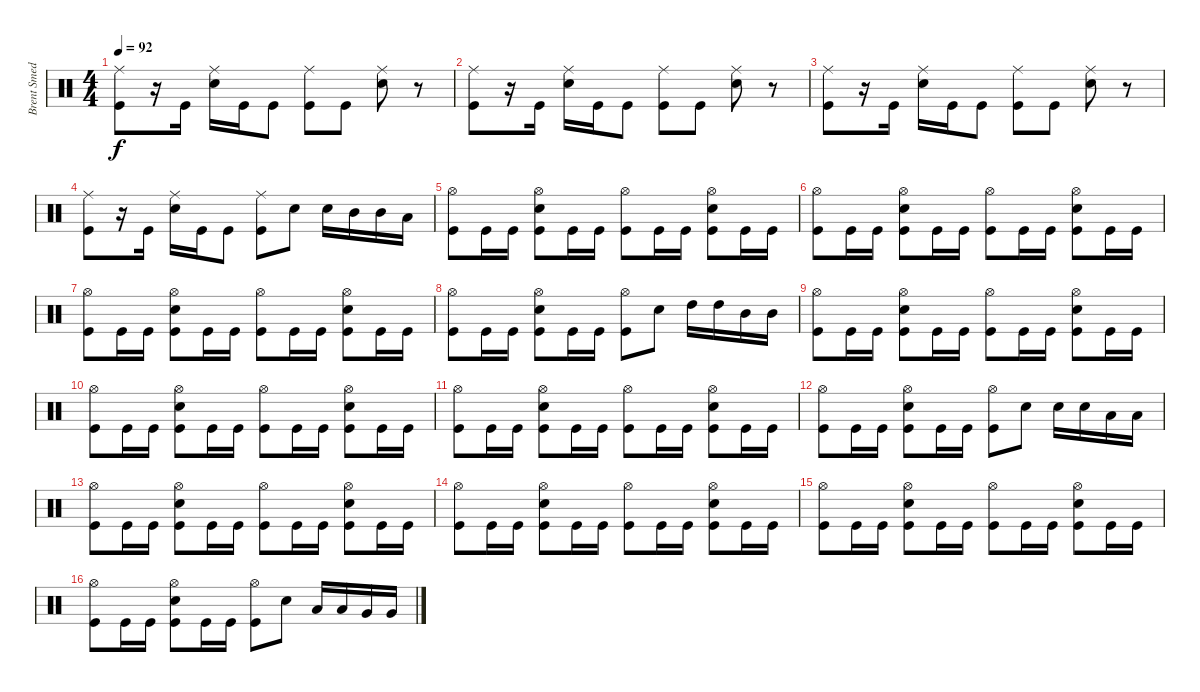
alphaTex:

\track ("Brent Smedley" "Brent Smed") {instrument percussion}
\staff {score}
\articulation defaults
\ts (4 4)
\tempo 92
\clef neutral
\ks c
("Ride (middle)" "Kick (hit)").8{dy f} r.16 "Kick (hit)".16 ("Ride (middle)" "Electric Snare (hit)").16 "Kick (hit)".16 "Kick (hit)".8 ("Ride (middle)" "Kick (hit)").8 "Kick (hit)".8 ("Ride (middle)" "Electric Snare (hit)").8 r.8 |
("Ride (middle)" "Kick (hit)").8 r.16 "Kick (hit)".16 ("Ride (middle)" "Electric Snare (hit)").16 "Kick (hit)".16 "Kick (hit)".8 ("Ride (middle)" "Kick (hit)").8 "Kick (hit)".8 ("Ride (middle)" "Electric Snare (hit)").8 r.8 |
("Ride (middle)" "Kick (hit)").8 r.16 "Kick (hit)".16 ("Ride (middle)" "Electric Snare (hit)").16 "Kick (hit)".16 "Kick (hit)".8 ("Ride (middle)" "Kick (hit)").8 "Kick (hit)".8 ("Ride (middle)" "Electric Snare (hit)").8 r.8 |
("Ride (middle)" "Kick (hit)").8 r.16 "Kick (hit)".16 ("Ride (middle)" "Electric Snare (hit)").16 "Kick (hit)".16 "Kick (hit)".8 ("Ride (middle)" "Kick (hit)").8 "Electric Snare (hit)".8 "Electric Snare (hit)".16 "Mid Tom (hit)".16 "Mid Tom (hit)".16 "Low Tom (hit)".16 |
("Hi-Hat (open)" "Kick (hit)").8 "Kick (hit)".16 "Kick (hit)".16 ("Hi-Hat (open)" "Electric Snare (hit)" "Kick (hit)").8 "Kick (hit)".16 "Kick (hit)".16 ("Hi-Hat (open)" "Kick (hit)").8 "Kick (hit)".16 "Kick (hit)".16 ("Hi-Hat (open)" "Electric Snare (hit)" "Kick (hit)").8 "Kick (hit)".16 "Kick (hit)".16 |
("Hi-Hat (open)" "Kick (hit)").8 "Kick (hit)".16 "Kick (hit)".16 ("Hi-Hat (open)" "Electric Snare (hit)" "Kick (hit)").8 "Kick (hit)".16 "Kick (hit)".16 ("Hi-Hat (open)" "Kick (hit)").8 "Kick (hit)".16 "Kick (hit)".16 ("Hi-Hat (open)" "Electric Snare (hit)" "Kick (hit)").8 "Kick (hit)".16 "Kick (hit)".16 |
("Hi-Hat (open)" "Kick (hit)").8 "Kick (hit)".16 "Kick (hit)".16 ("Hi-Hat (open)" "Electric Snare (hit)" "Kick (hit)").8 "Kick (hit)".16 "Kick (hit)".16 ("Hi-Hat (open)" "Kick (hit)").8 "Kick (hit)".16 "Kick (hit)".16 ("Hi-Hat (open)" "Electric Snare (hit)" "Kick (hit)").8 "Kick (hit)".16 "Kick (hit)".16 |
("Hi-Hat (open)" "Kick (hit)").8 "Kick (hit)".16 "Kick (hit)".16 ("Hi-Hat (open)" "Electric Snare (hit)" "Kick (hit)").8 "Kick (hit)".16 "Kick (hit)".16 ("Hi-Hat (open)" "Kick (hit)").8 "Electric Snare (hit)".8 "High Tom (hit)".16 "High Tom (hit)".16 "Mid Tom (hit)".16 "Mid Tom (hit)".16 |
("Hi-Hat (open)" "Kick (hit)").8 "Kick (hit)".16 "Kick (hit)".16 ("Hi-Hat (open)" "Electric Snare (hit)" "Kick (hit)").8 "Kick (hit)".16 "Kick (hit)".16 ("Hi-Hat (open)" "Kick (hit)").8 "Kick (hit)".16 "Kick (hit)".16 ("Hi-Hat (open)" "Electric Snare (hit)" "Kick (hit)").8 "Kick (hit)".16 "Kick (hit)".16 |
("Hi-Hat (open)" "Kick (hit)").8 "Kick (hit)".16 "Kick (hit)".16 ("Hi-Hat (open)" "Electric Snare (hit)" "Kick (hit)").8 "Kick (hit)".16 "Kick (hit)".16 ("Hi-Hat (open)" "Kick (hit)").8 "Kick (hit)".16 "Kick (hit)".16 ("Hi-Hat (open)" "Electric Snare (hit)" "Kick (hit)").8 "Kick (hit)".16 "Kick (hit)".16 |
("Hi-Hat (open)" "Kick (hit)").8 "Kick (hit)".16 "Kick (hit)".16 ("Hi-Hat (open)" "Electric Snare (hit)" "Kick (hit)").8 "Kick (hit)".16 "Kick (hit)".16 ("Hi-Hat (open)" "Kick (hit)").8 "Kick (hit)".16 "Kick (hit)".16 ("Hi-Hat (open)" "Electric Snare (hit)" "Kick (hit)").8 "Kick (hit)".16 "Kick (hit)".16 |
("Hi-Hat (open)" "Kick (hit)").8 "Kick (hit)".16 "Kick (hit)".16 ("Hi-Hat (open)" "Electric Snare (hit)" "Kick (hit)").8 "Kick (hit)".16 "Kick (hit)".16 ("Hi-Hat (open)" "Kick (hit)").8 "Electric Snare (hit)".8 "Electric Snare (hit)".16 "Electric Snare (hit)".16 "Low Tom (hit)".16 "Low Tom (hit)".16 |
("Hi-Hat (open)" "Kick (hit)").8 "Kick (hit)".16 "Kick (hit)".16 ("Hi-Hat (open)" "Electric Snare (hit)" "Kick (hit)").8 "Kick (hit)".16 "Kick (hit)".16 ("Hi-Hat (open)" "Kick (hit)").8 "Kick (hit)".16 "Kick (hit)".16 ("Hi-Hat (open)" "Electric Snare (hit)" "Kick (hit)").8 "Kick (hit)".16 "Kick (hit)".16 |
("Hi-Hat (open)" "Kick (hit)").8 "Kick (hit)".16 "Kick (hit)".16 ("Hi-Hat (open)" "Electric Snare (hit)" "Kick (hit)").8 "Kick (hit)".16 "Kick (hit)".16 ("Hi-Hat (open)" "Kick (hit)").8 "Kick (hit)".16 "Kick (hit)".16 ("Hi-Hat (open)" "Electric Snare (hit)" "Kick (hit)").8 "Kick (hit)".16 "Kick (hit)".16 |
("Hi-Hat (open)" "Kick (hit)").8 "Kick (hit)".16 "Kick (hit)".16 ("Hi-Hat (open)" "Electric Snare (hit)" "Kick (hit)").8 "Kick (hit)".16 "Kick (hit)".16 ("Hi-Hat (open)" "Kick (hit)").8 "Kick (hit)".16 "Kick (hit)".16 ("Hi-Hat (open)" "Electric Snare (hit)" "Kick (hit)").8 "Kick (hit)".16 "Kick (hit)".16 |
("Hi-Hat (open)" "Kick (hit)").8 "Kick (hit)".16 "Kick (hit)".16 ("Hi-Hat (open)" "Electric Snare (hit)" "Kick (hit)").8 "Kick (hit)".16 "Kick (hit)".16 ("Hi-Hat (open)" "Kick (hit)").8 "Electric Snare (hit)".8 "Low Tom (hit)".16 "Low Tom (hit)".16 "Very Low Tom (hit)".16 "Very Low Tom (hit)".16
